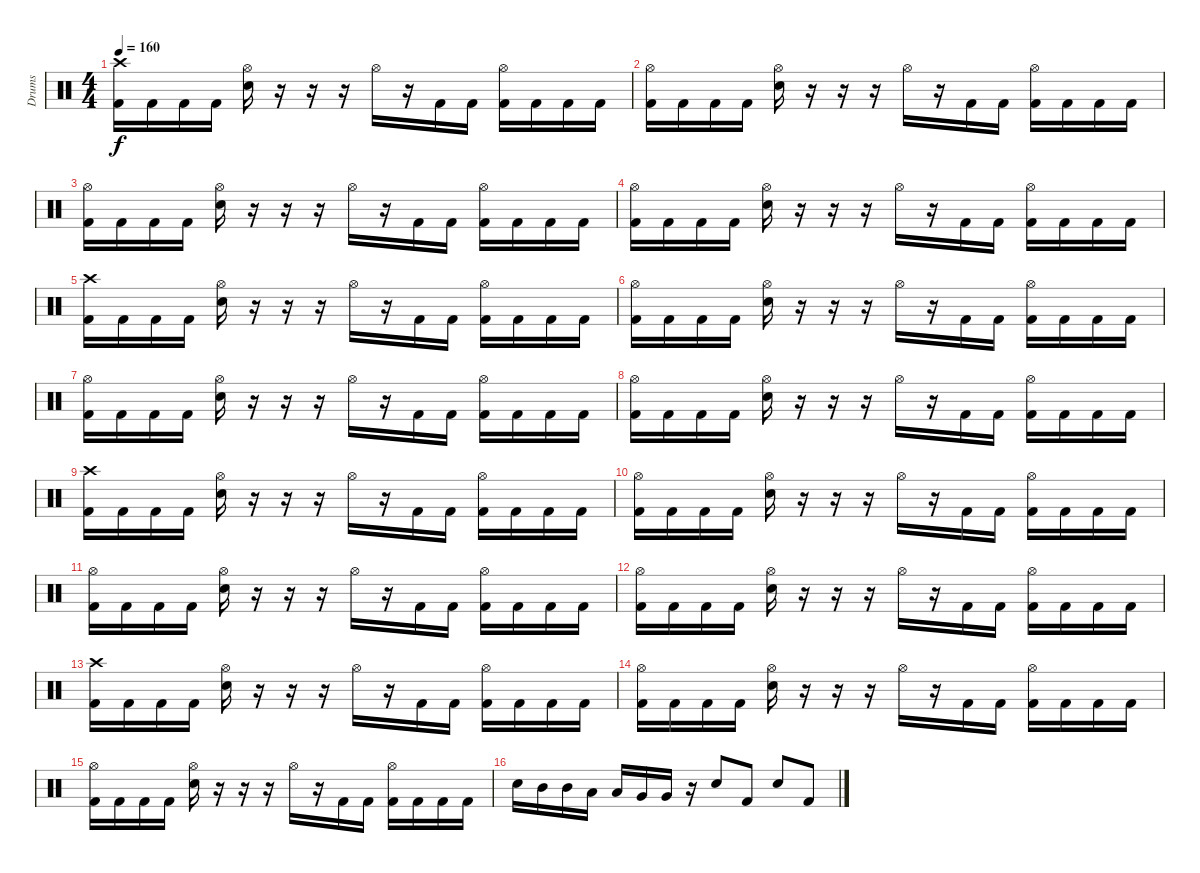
\track ("Drums" "Drums") {instrument percussion}
\staff {score}
\articulation defaults
\ts (4 4)
\tempo 160
\clef neutral
\ks c
("Crash high (hit)" "Kick (hit) 2").16{dy f} "Kick (hit) 2".16 "Kick (hit) 2".16 "Kick (hit) 2".16 ("Hi-Hat (open)" "Electric Snare (hit)").16 r.16 r.16 r.16 "Hi-Hat (open)".16 r.16 "Kick (hit) 2".16 "Kick (hit) 2".16 ("Hi-Hat (open)" "Kick (hit) 2").16 "Kick (hit) 2".16 "Kick (hit) 2".16 "Kick (hit) 2".16 |
("Hi-Hat (open)" "Kick (hit) 2").16 "Kick (hit) 2".16 "Kick (hit) 2".16 "Kick (hit) 2".16 ("Hi-Hat (open)" "Electric Snare (hit)").16 r.16 r.16 r.16 "Hi-Hat (open)".16 r.16 "Kick (hit) 2".16 "Kick (hit) 2".16 ("Hi-Hat (open)" "Kick (hit) 2").16 "Kick (hit) 2".16 "Kick (hit) 2".16 "Kick (hit) 2".16 |
("Hi-Hat (open)" "Kick (hit) 2").16 "Kick (hit) 2".16 "Kick (hit) 2".16 "Kick (hit) 2".16 ("Hi-Hat (open)" "Electric Snare (hit)").16 r.16 r.16 r.16 "Hi-Hat (open)".16 r.16 "Kick (hit) 2".16 "Kick (hit) 2".16 ("Hi-Hat (open)" "Kick (hit) 2").16 "Kick (hit) 2".16 "Kick (hit) 2".16 "Kick (hit) 2".16 |
("Hi-Hat (open)" "Kick (hit) 2").16 "Kick (hit) 2".16 "Kick (hit) 2".16 "Kick (hit) 2".16 ("Hi-Hat (open)" "Electric Snare (hit)").16 r.16 r.16 r.16 "Hi-Hat (open)".16 r.16 "Kick (hit) 2".16 "Kick (hit) 2".16 ("Hi-Hat (open)" "Kick (hit) 2").16 "Kick (hit) 2".16 "Kick (hit) 2".16 "Kick (hit) 2".16 |
("Crash high (hit)" "Kick (hit) 2").16 "Kick (hit) 2".16 "Kick (hit) 2".16 "Kick (hit) 2".16 ("Hi-Hat (open)" "Electric Snare (hit)").16 r.16 r.16 r.16 "Hi-Hat (open)".16 r.16 "Kick (hit) 2".16 "Kick (hit) 2".16 ("Hi-Hat (open)" "Kick (hit) 2").16 "Kick (hit) 2".16 "Kick (hit) 2".16 "Kick (hit) 2".16 |
("Hi-Hat (open)" "Kick (hit) 2").16 "Kick (hit) 2".16 "Kick (hit) 2".16 "Kick (hit) 2".16 ("Hi-Hat (open)" "Electric Snare (hit)").16 r.16 r.16 r.16 "Hi-Hat (open)".16 r.16 "Kick (hit) 2".16 "Kick (hit) 2".16 ("Hi-Hat (open)" "Kick (hit) 2").16 "Kick (hit) 2".16 "Kick (hit) 2".16 "Kick (hit) 2".16 |
("Hi-Hat (open)" "Kick (hit) 2").16 "Kick (hit) 2".16 "Kick (hit) 2".16 "Kick (hit) 2".16 ("Hi-Hat (open)" "Electric Snare (hit)").16 r.16 r.16 r.16 "Hi-Hat (open)".16 r.16 "Kick (hit) 2".16 "Kick (hit) 2".16 ("Hi-Hat (open)" "Kick (hit) 2").16 "Kick (hit) 2".16 "Kick (hit) 2".16 "Kick (hit) 2".16 |
("Hi-Hat (open)" "Kick (hit) 2").16 "Kick (hit) 2".16 "Kick (hit) 2".16 "Kick (hit) 2".16 ("Hi-Hat (open)" "Electric Snare (hit)").16 r.16 r.16 r.16 "Hi-Hat (open)".16 r.16 "Kick (hit) 2".16 "Kick (hit) 2".16 ("Hi-Hat (open)" "Kick (hit) 2").16 "Kick (hit) 2".16 "Kick (hit) 2".16 "Kick (hit) 2".16 |
("Crash high (hit)" "Kick (hit) 2").16 "Kick (hit) 2".16 "Kick (hit) 2".16 "Kick (hit) 2".16 ("Hi-Hat (open)" "Electric Snare (hit)").16 r.16 r.16 r.16 "Hi-Hat (open)".16 r.16 "Kick (hit) 2".16 "Kick (hit) 2".16 ("Hi-Hat (open)" "Kick (hit) 2").16 "Kick (hit) 2".16 "Kick (hit) 2".16 "Kick (hit) 2".16 |
("Hi-Hat (open)" "Kick (hit) 2").16 "Kick (hit) 2".16 "Kick (hit) 2".16 "Kick (hit) 2".16 ("Hi-Hat (open)" "Electric Snare (hit)").16 r.16 r.16 r.16 "Hi-Hat (open)".16 r.16 "Kick (hit) 2".16 "Kick (hit) 2".16 ("Hi-Hat (open)" "Kick (hit) 2").16 "Kick (hit) 2".16 "Kick (hit) 2".16 "Kick (hit) 2".16 |
("Hi-Hat (open)" "Kick (hit) 2").16 "Kick (hit) 2".16 "Kick (hit) 2".16 "Kick (hit) 2".16 ("Hi-Hat (open)" "Electric Snare (hit)").16 r.16 r.16 r.16 "Hi-Hat (open)".16 r.16 "Kick (hit) 2".16 "Kick (hit) 2".16 ("Hi-Hat (open)" "Kick (hit) 2").16 "Kick (hit) 2".16 "Kick (hit) 2".16 "Kick (hit) 2".16 |
("Hi-Hat (open)" "Kick (hit) 2").16 "Kick (hit) 2".16 "Kick (hit) 2".16 "Kick (hit) 2".16 ("Hi-Hat (open)" "Electric Snare (hit)").16 r.16 r.16 r.16 "Hi-Hat (open)".16 r.16 "Kick (hit) 2".16 "Kick (hit) 2".16 ("Hi-Hat (open)" "Kick (hit) 2").16 "Kick (hit) 2".16 "Kick (hit) 2".16 "Kick (hit) 2".16 |
("Crash high (hit)" "Kick (hit) 2").16 "Kick (hit) 2".16 "Kick (hit) 2".16 "Kick (hit) 2".16 ("Hi-Hat (open)" "Electric Snare (hit)").16 r.16 r.16 r.16 "Hi-Hat (open)".16 r.16 "Kick (hit) 2".16 "Kick (hit) 2".16 ("Hi-Hat (open)" "Kick (hit) 2").16 "Kick (hit) 2".16 "Kick (hit) 2".16 "Kick (hit) 2".16 |
("Hi-Hat (open)" "Kick (hit) 2").16 "Kick (hit) 2".16 "Kick (hit) 2".16 "Kick (hit) 2".16 ("Hi-Hat (open)" "Electric Snare (hit)").16 r.16 r.16 r.16 "Hi-Hat (open)".16 r.16 "Kick (hit) 2".16 "Kick (hit) 2".16 ("Hi-Hat (open)" "Kick (hit) 2").16 "Kick (hit) 2".16 "Kick (hit) 2".16 "Kick (hit) 2".16 |
("Hi-Hat (open)" "Kick (hit) 2").16 "Kick (hit) 2".16 "Kick (hit) 2".16 "Kick (hit) 2".16 ("Hi-Hat (open)" "Electric Snare (hit)").16 r.16 r.16 r.16 "Hi-Hat (open)".16 r.16 "Kick (hit) 2".16 "Kick (hit) 2".16 ("Hi-Hat (open)" "Kick (hit) 2").16 "Kick (hit) 2".16 "Kick (hit) 2".16 "Kick (hit) 2".16 |
"Electric Snare (hit)".16 "Mid Tom (hit)".16 "Mid Tom (hit)".16 "Low Tom (hit)".16 "Low Tom (hit)".16 "Very Low Tom (hit)".16 "Very Low Tom (hit)".16 r.16 "Electric Snare (hit)".8 "Kick (hit) 2".8 "Electric Snare (hit)".8 "Kick (hit) 2".8
